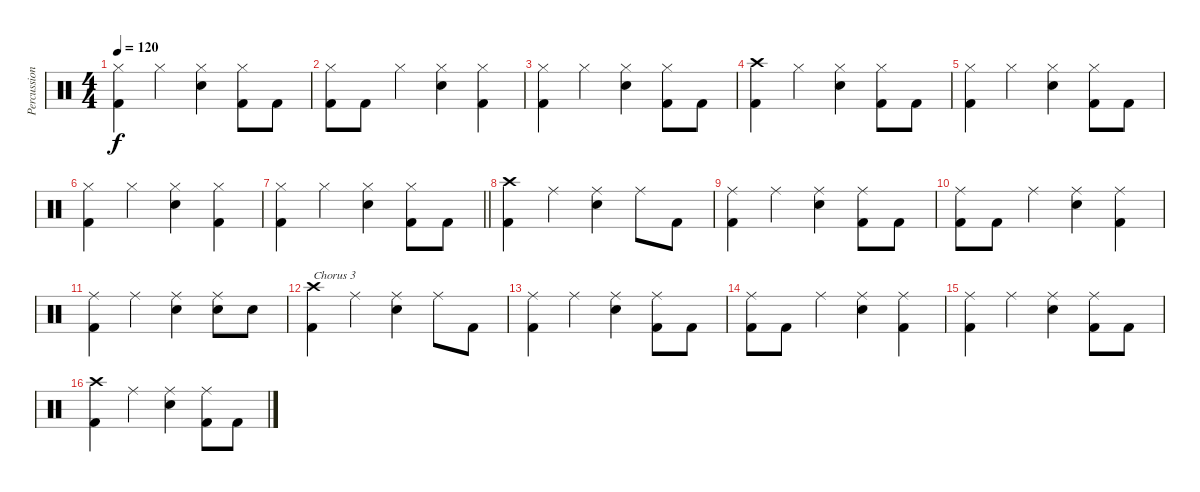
\track ("Percussion" "Percussion") {instrument percussion}
\staff {score}
\articulation defaults
\ts (4 4)
\tempo 120
\clef neutral
\ks c
("Kick (hit) 2" "Hi-Hat (closed)").4{dy f} "Hi-Hat (closed)".4 ("Snare (hit) 2" "Hi-Hat (closed)").4 ("Kick (hit) 2" "Hi-Hat (closed)").8 "Kick (hit) 2".8 |
("Kick (hit) 2" "Hi-Hat (closed)").8 "Kick (hit) 2".8 "Hi-Hat (closed)".4 ("Snare (hit) 2" "Hi-Hat (closed)").4 ("Kick (hit) 2" "Hi-Hat (closed)").4 |
("Kick (hit) 2" "Hi-Hat (closed)").4 "Hi-Hat (closed)".4 ("Snare (hit) 2" "Hi-Hat (closed)").4 ("Kick (hit) 2" "Hi-Hat (closed)").8 "Kick (hit) 2".8 |
("Kick (hit) 2" "Crash high (hit)").4 "Hi-Hat (closed)".4 ("Snare (hit) 2" "Hi-Hat (closed)").4 ("Kick (hit) 2" "Hi-Hat (closed)").8 "Kick (hit) 2".8 |
("Kick (hit) 2" "Hi-Hat (closed)").4 "Hi-Hat (closed)".4 ("Snare (hit) 2" "Hi-Hat (closed)").4 ("Kick (hit) 2" "Hi-Hat (closed)").8 "Kick (hit) 2".8 |
("Kick (hit) 2" "Hi-Hat (closed)").4 "Hi-Hat (closed)".4 ("Snare (hit) 2" "Hi-Hat (closed)").4 ("Kick (hit) 2" "Hi-Hat (closed)").4 |
\barLineRight lightlight
("Kick (hit) 2" "Hi-Hat (closed)").4 "Hi-Hat (closed)".4 ("Snare (hit) 2" "Hi-Hat (closed)").4 ("Kick (hit) 2" "Hi-Hat (closed)").8 "Kick (hit) 2".8 |
("Kick (hit) 2" "Crash high (hit)").4 "Ride (middle)".4 ("Snare (hit) 2" "Ride (middle)").4 "Ride (middle)".8 "Kick (hit) 2".8 |
("Kick (hit) 2" "Ride (middle)").4 "Ride (middle)".4 ("Snare (hit) 2" "Ride (middle)").4 ("Kick (hit) 2" "Ride (middle)").8 "Kick (hit) 2".8 |
("Kick (hit) 2" "Ride (middle)").8 "Kick (hit) 2".8 "Ride (middle)".4 ("Snare (hit) 2" "Ride (middle)").4 ("Kick (hit) 2" "Ride (middle)").4 |
("Kick (hit) 2" "Ride (middle)").4 "Ride (middle)".4 ("Snare (hit) 2" "Ride (middle)").4 ("Snare (hit) 2" "Ride (middle)").8 "Snare (hit) 2".8 |
("Kick (hit) 2" "Crash high (hit)").4{txt "Chorus 3"} "Ride (middle)".4 ("Snare (hit) 2" "Ride (middle)").4 "Ride (middle)".8 "Kick (hit) 2".8 |
("Kick (hit) 2" "Ride (middle)").4 "Ride (middle)".4 ("Snare (hit) 2" "Ride (middle)").4 ("Kick (hit) 2" "Ride (middle)").8 "Kick (hit) 2".8 |
("Kick (hit) 2" "Ride (middle)").8 "Kick (hit) 2".8 "Ride (middle)".4 ("Snare (hit) 2" "Ride (middle)").4 ("Kick (hit) 2" "Ride (middle)").4 |
("Kick (hit) 2" "Ride (middle)").4 "Ride (middle)".4 ("Snare (hit) 2" "Ride (middle)").4 ("Kick (hit) 2" "Ride (middle)").8 "Kick (hit) 2".8 |
("Kick (hit) 2" "Crash high (hit)").4 "Ride (middle)".4 ("Snare (hit) 2" "Ride (middle)").4 ("Kick (hit) 2" "Ride (middle)").8 "Kick (hit) 2".8
